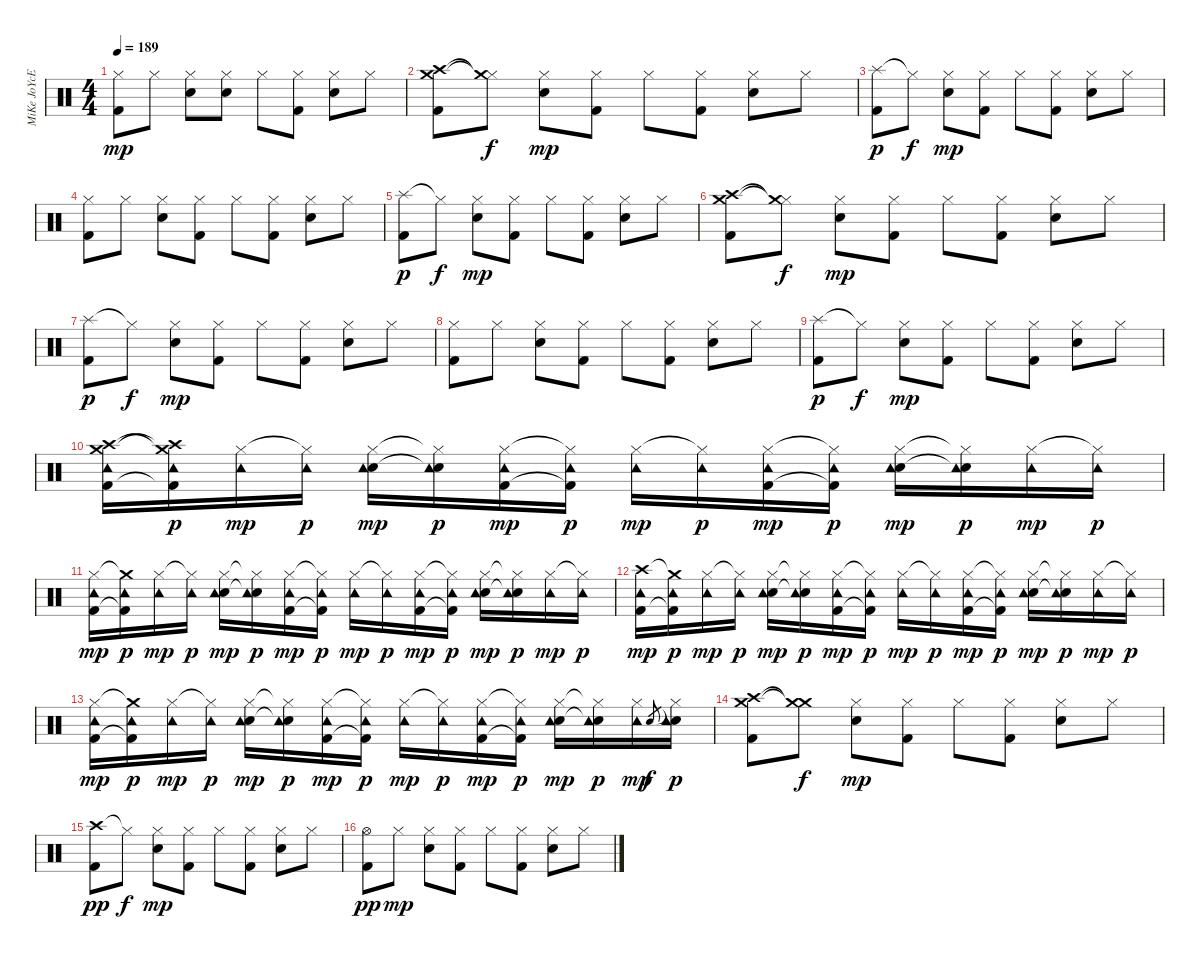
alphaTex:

\track ("MiKe JoYcE" "MiKe JoYcE") {instrument percussion}
\staff {score}
\articulation defaults
\ts (4 4)
\tempo 189
\clef neutral
\ks c
("Hi-Hat (closed)" "Kick (hit) 2").8{dy mp} "Hi-Hat (closed)".8 ("Hi-Hat (closed)" "Electric Snare (hit)").8 ("Hi-Hat (closed)" "Electric Snare (hit)").8 "Hi-Hat (closed)".8 ("Hi-Hat (closed)" "Kick (hit) 2").8 ("Hi-Hat (closed)" "Electric Snare (hit)").8 "Hi-Hat (closed)".8 |
("Crash high (hit)" "Crash medium (hit)" "Kick (hit) 2").8 ("Hi-Hat (closed)"{t} "Crash medium (hit)"{t}).8{dy f} ("Hi-Hat (closed)" "Electric Snare (hit)").8{dy mp} ("Hi-Hat (closed)" "Kick (hit) 2").8 "Hi-Hat (closed)".8 ("Hi-Hat (closed)" "Kick (hit) 2").8 ("Hi-Hat (closed)" "Electric Snare (hit)").8 "Hi-Hat (closed)".8 |
("Splash (hit)" "Kick (hit) 2").8{dy p} "Hi-Hat (closed)"{t}.8{dy f} ("Hi-Hat (closed)" "Electric Snare (hit)").8{dy mp} ("Hi-Hat (closed)" "Kick (hit) 2").8 "Hi-Hat (closed)".8 ("Hi-Hat (closed)" "Kick (hit) 2").8 ("Hi-Hat (closed)" "Electric Snare (hit)").8 "Hi-Hat (closed)".8 |
("Hi-Hat (closed)" "Kick (hit) 2").8 "Hi-Hat (closed)".8 ("Hi-Hat (closed)" "Electric Snare (hit)").8 ("Hi-Hat (closed)" "Kick (hit) 2").8 "Hi-Hat (closed)".8 ("Hi-Hat (closed)" "Kick (hit) 2").8 ("Hi-Hat (closed)" "Electric Snare (hit)").8 "Hi-Hat (closed)".8 |
("Splash (hit)" "Kick (hit) 2").8{dy p} "Hi-Hat (closed)"{t}.8{dy f} ("Hi-Hat (closed)" "Electric Snare (hit)").8{dy mp} ("Hi-Hat (closed)" "Kick (hit) 2").8 "Hi-Hat (closed)".8 ("Hi-Hat (closed)" "Kick (hit) 2").8 ("Hi-Hat (closed)" "Electric Snare (hit)").8 "Hi-Hat (closed)".8 |
("Crash high (hit)" "Crash medium (hit)" "Kick (hit) 2").8 ("Hi-Hat (closed)"{t} "Crash medium (hit)"{t}).8{dy f} ("Hi-Hat (closed)" "Electric Snare (hit)").8{dy mp} ("Hi-Hat (closed)" "Kick (hit) 2").8 "Hi-Hat (closed)".8 ("Hi-Hat (closed)" "Kick (hit) 2").8 ("Hi-Hat (closed)" "Electric Snare (hit)").8 "Hi-Hat (closed)".8 |
("Splash (hit)" "Kick (hit) 2").8{dy p} "Hi-Hat (closed)"{t}.8{dy f} ("Hi-Hat (closed)" "Electric Snare (hit)").8{dy mp} ("Hi-Hat (closed)" "Kick (hit) 2").8 "Hi-Hat (closed)".8 ("Hi-Hat (closed)" "Kick (hit) 2").8 ("Hi-Hat (closed)" "Electric Snare (hit)").8 "Hi-Hat (closed)".8 |
("Hi-Hat (closed)" "Kick (hit) 2").8 "Hi-Hat (closed)".8 ("Hi-Hat (closed)" "Electric Snare (hit)").8 ("Hi-Hat (closed)" "Kick (hit) 2").8 "Hi-Hat (closed)".8 ("Hi-Hat (closed)" "Kick (hit) 2").8 ("Hi-Hat (closed)" "Electric Snare (hit)").8 "Hi-Hat (closed)".8 |
("Splash (hit)" "Kick (hit) 2").8{dy p} "Hi-Hat (closed)"{t}.8{dy f} ("Hi-Hat (closed)" "Electric Snare (hit)").8{dy mp} ("Hi-Hat (closed)" "Kick (hit) 2").8 "Hi-Hat (closed)".8 ("Hi-Hat (closed)" "Kick (hit) 2").8 ("Hi-Hat (closed)" "Electric Snare (hit)").8 "Hi-Hat (closed)".8 |
("Crash high (hit)" "Crash medium (hit)" "Tambourine (hit)" "Kick (hit) 2").16 ("Crash medium (hit)"{t} "Crash high (hit)"{t} "Tambourine (hit)" "Kick (hit) 2"{t}).16{dy p} ("Hi-Hat (closed)" "Tambourine (hit)").16{dy mp} ("Hi-Hat (closed)"{t} "Tambourine (hit)").16{dy p} ("Hi-Hat (closed)" "Electric Snare (hit)" "Tambourine (hit)").16{dy mp} ("Hi-Hat (closed)"{t} "Electric Snare (hit)"{t} "Tambourine (hit)").16{dy p} ("Hi-Hat (closed)" "Tambourine (hit)" "Kick (hit) 2").16{dy mp} ("Hi-Hat (closed)"{t} "Tambourine (hit)" "Kick (hit) 2"{t}).16{dy p} ("Hi-Hat (closed)" "Tambourine (hit)").16{dy mp} ("Hi-Hat (closed)"{t} "Tambourine (hit)").16{dy p} ("Hi-Hat (closed)" "Tambourine (hit)" "Kick (hit) 2").16{dy mp} ("Hi-Hat (closed)"{t} "Tambourine (hit)" "Kick (hit) 2"{t}).16{dy p} ("Hi-Hat (closed)" "Electric Snare (hit)" "Tambourine (hit)").16{dy mp} ("Hi-Hat (closed)"{t} "Electric Snare (hit)"{t} "Tambourine (hit)").16{dy p} ("Hi-Hat (closed)" "Tambourine (hit)").16{dy mp} ("Hi-Hat (closed)"{t} "Tambourine (hit)").16{dy p} |
("Hi-Hat (closed)" "Tambourine (hit)" "Kick (hit) 2").16{dy mp} ("Crash medium (hit)"{t} "Tambourine (hit)" "Kick (hit) 2"{t}).16{dy p} ("Hi-Hat (closed)" "Tambourine (hit)").16{dy mp} ("Hi-Hat (closed)"{t} "Tambourine (hit)").16{dy p} ("Hi-Hat (closed)" "Electric Snare (hit)" "Tambourine (hit)").16{dy mp} ("Hi-Hat (closed)"{t} "Electric Snare (hit)"{t} "Tambourine (hit)").16{dy p} ("Hi-Hat (closed)" "Tambourine (hit)" "Kick (hit) 2").16{dy mp} ("Hi-Hat (closed)"{t} "Tambourine (hit)" "Kick (hit) 2"{t}).16{dy p} ("Hi-Hat (closed)" "Tambourine (hit)").16{dy mp} ("Hi-Hat (closed)"{t} "Tambourine (hit)").16{dy p} ("Hi-Hat (closed)" "Tambourine (hit)" "Kick (hit) 2").16{dy mp} ("Hi-Hat (closed)"{t} "Tambourine (hit)" "Kick (hit) 2"{t}).16{dy p} ("Hi-Hat (closed)" "Electric Snare (hit)" "Tambourine (hit)").16{dy mp} ("Hi-Hat (closed)"{t} "Electric Snare (hit)"{t} "Tambourine (hit)").16{dy p} ("Hi-Hat (closed)" "Tambourine (hit)").16{dy mp} ("Hi-Hat (closed)"{t} "Tambourine (hit)").16{dy p} |
("Crash high (hit)" "Tambourine (hit)" "Kick (hit) 2").16{dy mp} ("Crash medium (hit)"{t} "Tambourine (hit)" "Kick (hit) 2"{t}).16{dy p} ("Hi-Hat (closed)" "Tambourine (hit)").16{dy mp} ("Hi-Hat (closed)"{t} "Tambourine (hit)").16{dy p} ("Hi-Hat (closed)" "Electric Snare (hit)" "Tambourine (hit)").16{dy mp} ("Hi-Hat (closed)"{t} "Electric Snare (hit)"{t} "Tambourine (hit)").16{dy p} ("Hi-Hat (closed)" "Tambourine (hit)" "Kick (hit) 2").16{dy mp} ("Hi-Hat (closed)"{t} "Tambourine (hit)" "Kick (hit) 2"{t}).16{dy p} ("Hi-Hat (closed)" "Tambourine (hit)").16{dy mp} ("Hi-Hat (closed)"{t} "Tambourine (hit)").16{dy p} ("Hi-Hat (closed)" "Tambourine (hit)" "Kick (hit) 2").16{dy mp} ("Hi-Hat (closed)"{t} "Tambourine (hit)" "Kick (hit) 2"{t}).16{dy p} ("Hi-Hat (closed)" "Electric Snare (hit)" "Tambourine (hit)").16{dy mp} ("Hi-Hat (closed)"{t} "Electric Snare (hit)"{t} "Tambourine (hit)").16{dy p} ("Hi-Hat (closed)" "Tambourine (hit)").16{dy mp} ("Hi-Hat (closed)"{t} "Tambourine (hit)").16{dy p} |
("Hi-Hat (closed)" "Tambourine (hit)" "Kick (hit) 2").16{dy mp} ("Crash medium (hit)"{t} "Tambourine (hit)" "Kick (hit) 2"{t}).16{dy p} ("Hi-Hat (closed)" "Tambourine (hit)").16{dy mp} ("Hi-Hat (closed)"{t} "Tambourine (hit)").16{dy p} ("Hi-Hat (closed)" "Electric Snare (hit)" "Tambourine (hit)").16{dy mp} ("Hi-Hat (closed)"{t} "Electric Snare (hit)"{t} "Tambourine (hit)").16{dy p} ("Hi-Hat (closed)" "Tambourine (hit)" "Kick (hit) 2").16{dy mp} ("Hi-Hat (closed)"{t} "Tambourine (hit)" "Kick (hit) 2"{t}).16{dy p} ("Hi-Hat (closed)" "Tambourine (hit)").16{dy mp} ("Hi-Hat (closed)"{t} "Tambourine (hit)").16{dy p} ("Hi-Hat (closed)" "Tambourine (hit)" "Kick (hit) 2").16{dy mp} ("Hi-Hat (closed)"{t} "Tambourine (hit)" "Kick (hit) 2"{t}).16{dy p} ("Hi-Hat (closed)" "Electric Snare (hit)" "Tambourine (hit)").16{dy mp} ("Hi-Hat (closed)"{t} "Electric Snare (hit)"{t} "Tambourine (hit)").16{dy p} ("Hi-Hat (closed)" "Tambourine (hit)").16{dy mp} "Electric Snare (hit)".8{gr dy f} ("Hi-Hat (closed)"{t} "Electric Snare (hit)" "Tambourine (hit)").16{dy p} |
("Crash high (hit)" "Crash medium (hit)" "Kick (hit) 2").8 ("Crash medium (hit)"{t} "Crash medium (hit)"{t}).8{dy f} ("Hi-Hat (closed)" "Electric Snare (hit)").8{dy mp} ("Hi-Hat (closed)" "Kick (hit) 2").8 "Hi-Hat (closed)".8 ("Hi-Hat (closed)" "Kick (hit) 2").8 ("Hi-Hat (closed)" "Electric Snare (hit)").8 "Hi-Hat (closed)".8 |
("Crash high (hit)" "Kick (hit) 2").8{dy pp} "Hi-Hat (closed)"{t}.8{dy f} ("Hi-Hat (closed)" "Electric Snare (hit)").8{dy mp} ("Hi-Hat (closed)" "Kick (hit) 2").8 "Hi-Hat (closed)".8 ("Hi-Hat (closed)" "Kick (hit) 2").8 ("Hi-Hat (closed)" "Electric Snare (hit)").8 "Hi-Hat (closed)".8 |
("Hi-Hat (open)" "Kick (hit) 2").8{dy pp} "Hi-Hat (closed)".8{dy mp} ("Hi-Hat (closed)" "Electric Snare (hit)").8 ("Hi-Hat (closed)" "Kick (hit) 2").8 "Hi-Hat (closed)".8 ("Hi-Hat (closed)" "Kick (hit) 2").8 ("Hi-Hat (closed)" "Electric Snare (hit)").8 "Hi-Hat (closed)".8
